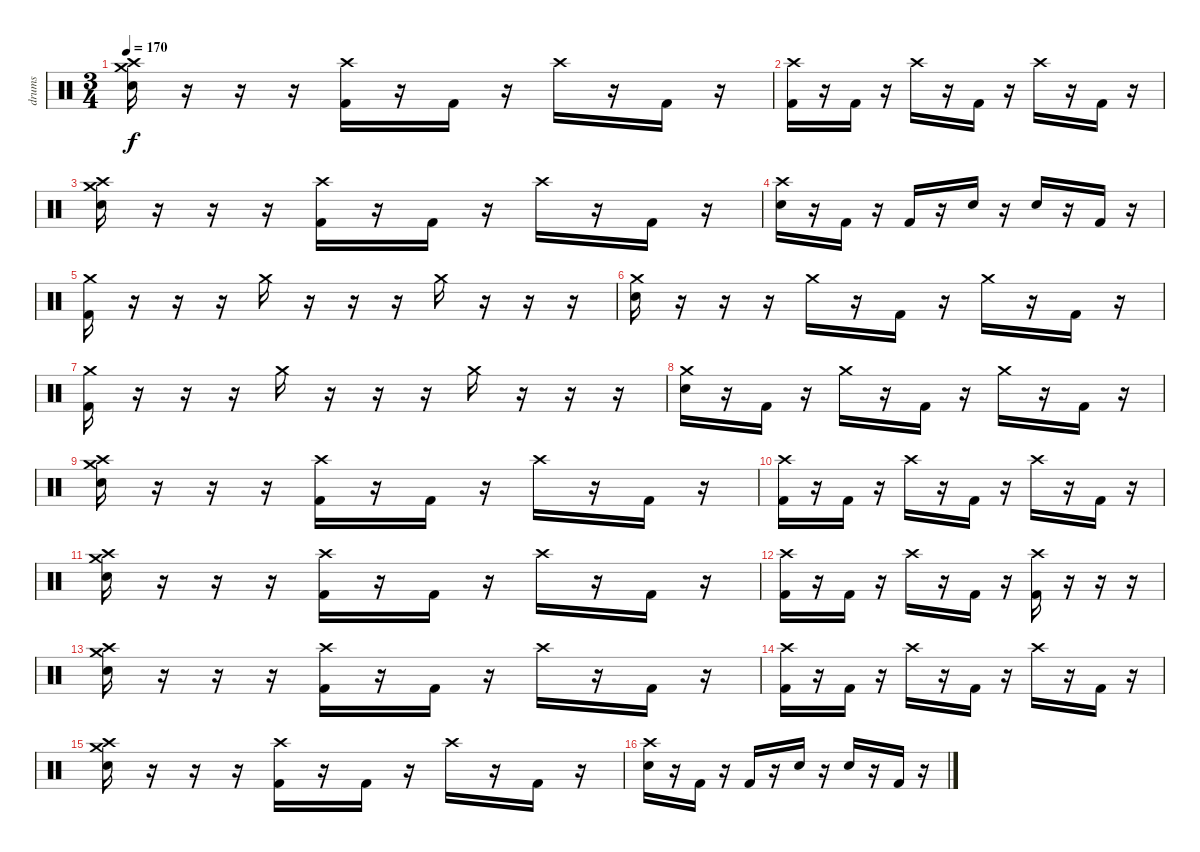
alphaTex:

\track ("drums" "drums") {instrument percussion}
\staff {score}
\articulation defaults
\ts (3 4)
\tempo 170
\clef neutral
\ks c
("Snare (hit) 2" "Crash high (hit)" "Crash medium (hit)").16{dy f} r.16 r.16 r.16 ("Crash high (hit)" "Kick (hit) 2").16 r.16 "Kick (hit) 2".16 r.16 "Crash high (hit)".16 r.16 "Kick (hit) 2".16 r.16 |
("Kick (hit) 2" "Crash high (hit)").16 r.16 "Kick (hit) 2".16 r.16 "Crash high (hit)".16 r.16 "Kick (hit) 2".16 r.16 "Crash high (hit)".16 r.16 "Kick (hit) 2".16 r.16 |
("Snare (hit) 2" "Crash high (hit)" "Crash medium (hit)").16 r.16 r.16 r.16 ("Crash high (hit)" "Kick (hit) 2").16 r.16 "Kick (hit) 2".16 r.16 "Crash high (hit)".16 r.16 "Kick (hit) 2".16 r.16 |
("Snare (hit) 2" "Crash high (hit)").16 r.16 "Kick (hit) 2".16 r.16 "Kick (hit) 2".16 r.16 "Snare (hit) 2".16 r.16 "Snare (hit) 2".16 r.16 "Kick (hit) 2".16 r.16 |
("Kick (hit) 2" "Crash medium (hit)").16 r.16 r.16 r.16 "Crash medium (hit)".16 r.16 r.16 r.16 "Crash medium (hit)".16 r.16 r.16 r.16 |
("Snare (hit) 2" "Crash medium (hit)").16 r.16 r.16 r.16 "Crash medium (hit)".16 r.16 "Kick (hit) 2".16 r.16 "Crash medium (hit)".16 r.16 "Kick (hit) 2".16 r.16 |
("Kick (hit) 2" "Crash medium (hit)").16 r.16 r.16 r.16 "Crash medium (hit)".16 r.16 r.16 r.16 "Crash medium (hit)".16 r.16 r.16 r.16 |
("Snare (hit) 2" "Crash medium (hit)").16 r.16 "Kick (hit) 2".16 r.16 "Crash medium (hit)".16 r.16 "Kick (hit) 2".16 r.16 "Crash medium (hit)".16 r.16 "Kick (hit) 2".16 r.16 |
("Snare (hit) 2" "Crash high (hit)" "Crash medium (hit)").16 r.16 r.16 r.16 ("Crash high (hit)" "Kick (hit) 2").16 r.16 "Kick (hit) 2".16 r.16 "Crash high (hit)".16 r.16 "Kick (hit) 2".16 r.16 |
("Kick (hit) 2" "Crash high (hit)").16 r.16 "Kick (hit) 2".16 r.16 "Crash high (hit)".16 r.16 "Kick (hit) 2".16 r.16 "Crash high (hit)".16 r.16 "Kick (hit) 2".16 r.16 |
("Snare (hit) 2" "Crash high (hit)" "Crash medium (hit)").16 r.16 r.16 r.16 ("Crash high (hit)" "Kick (hit) 2").16 r.16 "Kick (hit) 2".16 r.16 "Crash high (hit)".16 r.16 "Kick (hit) 2".16 r.16 |
("Kick (hit) 2" "Crash high (hit)").16 r.16 "Kick (hit) 2".16 r.16 "Crash high (hit)".16 r.16 "Kick (hit) 2".16 r.16 ("Crash high (hit)" "Kick (hit) 2").16 r.16 r.16 r.16 |
("Snare (hit) 2" "Crash high (hit)" "Crash medium (hit)").16 r.16 r.16 r.16 ("Crash high (hit)" "Kick (hit) 2").16 r.16 "Kick (hit) 2".16 r.16 "Crash high (hit)".16 r.16 "Kick (hit) 2".16 r.16 |
("Kick (hit) 2" "Crash high (hit)").16 r.16 "Kick (hit) 2".16 r.16 "Crash high (hit)".16 r.16 "Kick (hit) 2".16 r.16 "Crash high (hit)".16 r.16 "Kick (hit) 2".16 r.16 |
("Snare (hit) 2" "Crash high (hit)" "Crash medium (hit)").16 r.16 r.16 r.16 ("Crash high (hit)" "Kick (hit) 2").16 r.16 "Kick (hit) 2".16 r.16 "Crash high (hit)".16 r.16 "Kick (hit) 2".16 r.16 |
("Snare (hit) 2" "Crash high (hit)").16 r.16 "Kick (hit) 2".16 r.16 "Kick (hit) 2".16 r.16 "Snare (hit) 2".16 r.16 "Snare (hit) 2".16 r.16 "Kick (hit) 2".16 r.16
